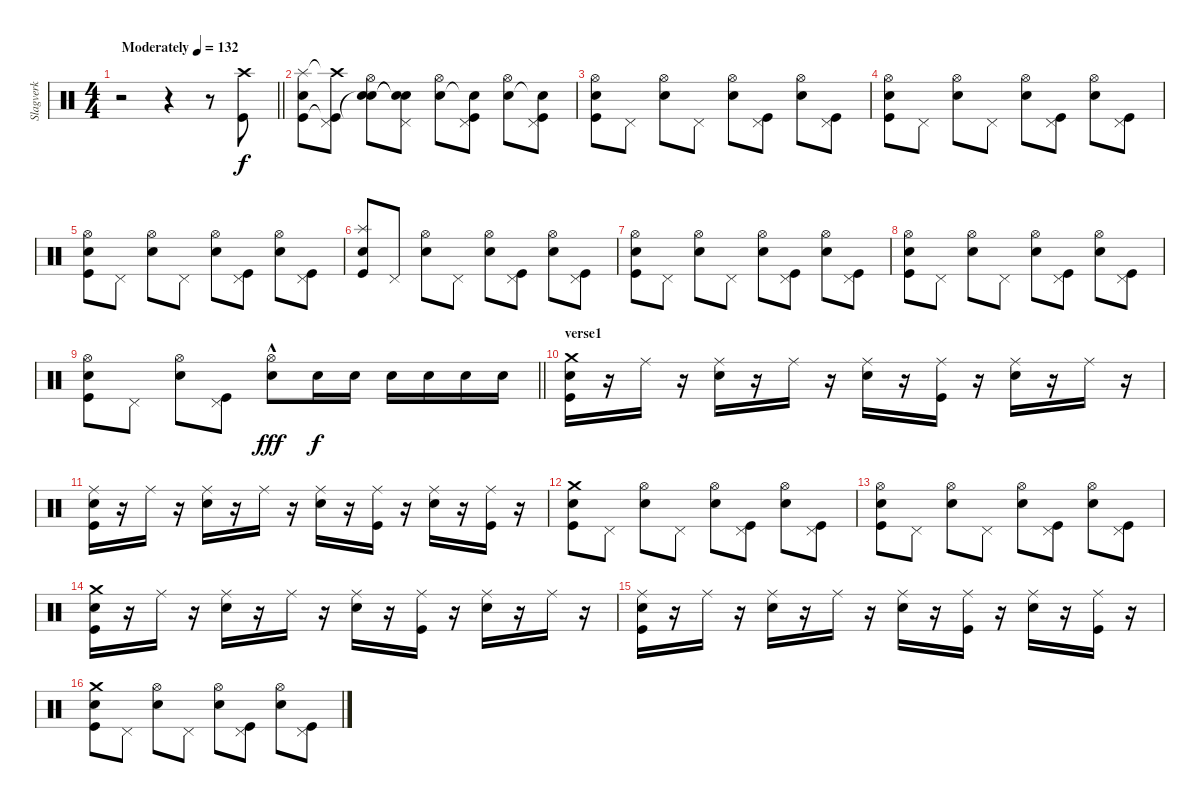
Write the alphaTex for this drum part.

\track ("Slagverk" "Slagverk") {instrument percussion}
\staff
\articulation defaults
\ts (4 4)
\tempo (132 "Moderately")
\clef neutral
\barLineRight lightlight
\ks c
r.2{dy f} r.4 r.8 ("Crash high (hit)" "Kick (hit)").8 |
("Splash (hit)" "Snare (hit) 2" "Kick (hit)").8 ("Crash high (hit)"{t} "Pedal Hi-Hat (hit)" "Kick (hit)"{t}).8 ("Hi-Hat (open)" "Snare (hit)"{t} "Snare (hit) 2").8 ("Pedal Hi-Hat (hit)" "Snare (hit)"{t} "Snare (hit) 2"{t}).8 ("Hi-Hat (open)" "Snare (hit) 2").8 ("Pedal Hi-Hat (hit)" "Snare (hit)"{t} "Kick (hit)").8 ("Hi-Hat (open)" "Snare (hit) 2").8 ("Pedal Hi-Hat (hit)" "Snare (hit)"{t} "Kick (hit)").8 |
("Hi-Hat (open)" "Snare (hit) 2" "Kick (hit)").8 "Pedal Hi-Hat (hit)".8 ("Hi-Hat (open)" "Snare (hit) 2").8 "Pedal Hi-Hat (hit)".8 ("Hi-Hat (open)" "Snare (hit) 2").8 ("Pedal Hi-Hat (hit)" "Kick (hit)").8 ("Hi-Hat (open)" "Snare (hit) 2").8 ("Pedal Hi-Hat (hit)" "Kick (hit)").8 |
("Hi-Hat (open)" "Snare (hit) 2" "Kick (hit)").8 "Pedal Hi-Hat (hit)".8 ("Hi-Hat (open)" "Snare (hit) 2").8 "Pedal Hi-Hat (hit)".8 ("Hi-Hat (open)" "Snare (hit) 2").8 ("Pedal Hi-Hat (hit)" "Kick (hit)").8 ("Hi-Hat (open)" "Snare (hit) 2").8 ("Pedal Hi-Hat (hit)" "Kick (hit)").8 |
("Hi-Hat (open)" "Snare (hit) 2" "Kick (hit)").8 "Pedal Hi-Hat (hit)".8 ("Hi-Hat (open)" "Snare (hit) 2").8 "Pedal Hi-Hat (hit)".8 ("Hi-Hat (open)" "Snare (hit) 2").8 ("Pedal Hi-Hat (hit)" "Kick (hit)").8 ("Hi-Hat (open)" "Snare (hit) 2").8 ("Pedal Hi-Hat (hit)" "Kick (hit)").8 |
("Splash (hit)" "Snare (hit) 2" "Kick (hit)").8 "Pedal Hi-Hat (hit)".8 ("Hi-Hat (open)" "Snare (hit) 2").8 "Pedal Hi-Hat (hit)".8 ("Hi-Hat (open)" "Snare (hit) 2").8 ("Pedal Hi-Hat (hit)" "Kick (hit)").8 ("Hi-Hat (open)" "Snare (hit) 2").8 ("Pedal Hi-Hat (hit)" "Kick (hit)").8 |
("Hi-Hat (open)" "Snare (hit) 2" "Kick (hit)").8 "Pedal Hi-Hat (hit)".8 ("Hi-Hat (open)" "Snare (hit) 2").8 "Pedal Hi-Hat (hit)".8 ("Hi-Hat (open)" "Snare (hit) 2").8 ("Pedal Hi-Hat (hit)" "Kick (hit)").8 ("Hi-Hat (open)" "Snare (hit) 2").8 ("Pedal Hi-Hat (hit)" "Kick (hit)").8 |
("Hi-Hat (open)" "Snare (hit) 2" "Kick (hit)").8 "Pedal Hi-Hat (hit)".8 ("Hi-Hat (open)" "Snare (hit) 2").8 "Pedal Hi-Hat (hit)".8 ("Hi-Hat (open)" "Snare (hit) 2").8 ("Pedal Hi-Hat (hit)" "Kick (hit)").8 ("Hi-Hat (open)" "Snare (hit) 2").8 ("Pedal Hi-Hat (hit)" "Kick (hit)").8 |
\barLineRight lightlight
("Hi-Hat (open)" "Snare (hit) 2" "Kick (hit)").8 "Pedal Hi-Hat (hit)".8 ("Hi-Hat (open)" "Snare (hit) 2").8 ("Pedal Hi-Hat (hit)" "Kick (hit)").8 ("Hi-Hat (open)"{hac} "Snare (hit) 2").8{dy fff} "Snare (hit) 2".16{dy f} "Snare (hit) 2".16 "Snare (hit) 2".16 "Snare (hit) 2".16 "Snare (hit) 2".16 "Snare (hit) 2".16 |
\section ("" "verse1")
("Crash medium (hit)" "Snare (hit) 2" "Kick (hit)").16 r.16 "Ride (middle)".16 r.16 ("Ride (middle)" "Snare (hit) 2").16 r.16 "Ride (middle)".16 r.16 ("Ride (middle)" "Snare (hit) 2").16 r.16 ("Ride (middle)" "Kick (hit)").16 r.16 ("Ride (middle)" "Snare (hit) 2").16 r.16 "Ride (middle)".16 r.16 |
("Ride (middle)" "Snare (hit) 2" "Kick (hit)").16 r.16 "Ride (middle)".16 r.16 ("Ride (middle)" "Snare (hit) 2").16 r.16 "Ride (middle)".16 r.16 ("Ride (middle)" "Snare (hit) 2").16 r.16 ("Ride (middle)" "Kick (hit)").16 r.16 ("Ride (middle)" "Snare (hit) 2").16 r.16 ("Ride (middle)" "Kick (hit)").16 r.16 |
("Crash medium (hit)" "Snare (hit) 2" "Kick (hit)").8 "Pedal Hi-Hat (hit)".8 ("Hi-Hat (open)" "Snare (hit) 2").8 "Pedal Hi-Hat (hit)".8 ("Hi-Hat (open)" "Snare (hit) 2").8 ("Pedal Hi-Hat (hit)" "Kick (hit)").8 ("Hi-Hat (open)" "Snare (hit) 2").8 ("Pedal Hi-Hat (hit)" "Kick (hit)").8 |
("Hi-Hat (open)" "Snare (hit) 2" "Kick (hit)").8 "Pedal Hi-Hat (hit)".8 ("Hi-Hat (open)" "Snare (hit) 2").8 "Pedal Hi-Hat (hit)".8 ("Hi-Hat (open)" "Snare (hit) 2").8 ("Pedal Hi-Hat (hit)" "Kick (hit)").8 ("Hi-Hat (open)" "Snare (hit) 2").8 ("Pedal Hi-Hat (hit)" "Kick (hit)").8 |
("Crash medium (hit)" "Snare (hit) 2" "Kick (hit)").16 r.16 "Ride (middle)".16 r.16 ("Ride (middle)" "Snare (hit) 2").16 r.16 "Ride (middle)".16 r.16 ("Ride (middle)" "Snare (hit) 2").16 r.16 ("Ride (middle)" "Kick (hit)").16 r.16 ("Ride (middle)" "Snare (hit) 2").16 r.16 "Ride (middle)".16 r.16 |
("Ride (middle)" "Snare (hit) 2" "Kick (hit)").16 r.16 "Ride (middle)".16 r.16 ("Ride (middle)" "Snare (hit) 2").16 r.16 "Ride (middle)".16 r.16 ("Ride (middle)" "Snare (hit) 2").16 r.16 ("Ride (middle)" "Kick (hit)").16 r.16 ("Ride (middle)" "Snare (hit) 2").16 r.16 ("Ride (middle)" "Kick (hit)").16 r.16 |
("Crash medium (hit)" "Snare (hit) 2" "Kick (hit)").8 "Pedal Hi-Hat (hit)".8 ("Hi-Hat (open)" "Snare (hit) 2").8 "Pedal Hi-Hat (hit)".8 ("Hi-Hat (open)" "Snare (hit) 2").8 ("Pedal Hi-Hat (hit)" "Kick (hit)").8 ("Hi-Hat (open)" "Snare (hit) 2").8 ("Pedal Hi-Hat (hit)" "Kick (hit)").8
